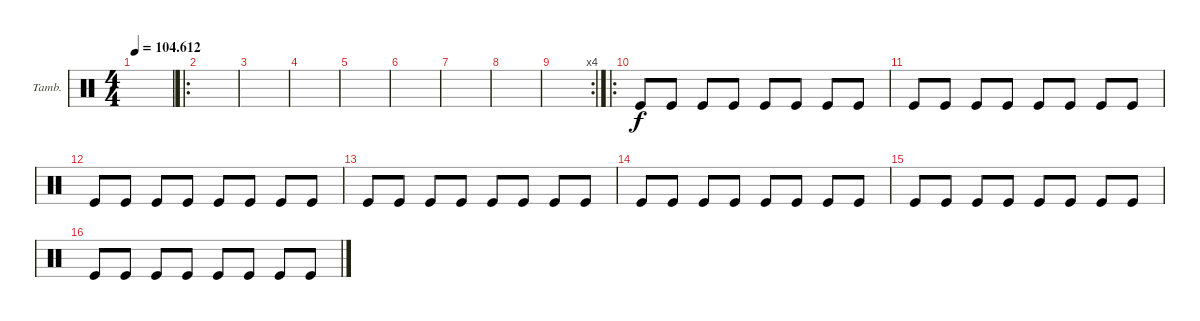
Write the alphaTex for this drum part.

\defaultSystemsLayout 4
\bracketExtendMode groupsimilarinstruments
\firstSystemTrackNameOrientation horizontal
\otherSystemsTrackNameOrientation horizontal
\track ("Tambourine" "Tamb.") {instrument percussion}
\staff {score}
\articulation defaults
\ts (4 4)
\tempo
104.612
\accidentals auto
\clef neutral
\ottava regular
\simile none
\scale
0.333333
\ks c
|
\ro
\scale
0.377049 |
\scale
0.311475 |
\scale
0.311475 |
\scale
0.333333 |
\scale
0.333333 |
\scale
0.333333 |
\scale
0.301587 |
\rc 4
\scale
0.333333 |
\ro
\scale
0.365079 "Kick (hit)".8 "Kick (hit)".8 "Kick (hit)".8 "Kick (hit)".8 "Kick (hit)".8 "Kick (hit)".8 "Kick (hit)".8 "Kick (hit)".8 |
\scale
0.333333 "Kick (hit)".8 "Kick (hit)".8 "Kick (hit)".8 "Kick (hit)".8 "Kick (hit)".8 "Kick (hit)".8 "Kick (hit)".8 "Kick (hit)".8 |
\scale
0.333333 "Kick (hit)".8 "Kick (hit)".8 "Kick (hit)".8 "Kick (hit)".8 "Kick (hit)".8 "Kick (hit)".8 "Kick (hit)".8 "Kick (hit)".8 |
\scale
0.333333 "Kick (hit)".8 "Kick (hit)".8 "Kick (hit)".8 "Kick (hit)".8 "Kick (hit)".8 "Kick (hit)".8 "Kick (hit)".8 "Kick (hit)".8 |
\scale
0.333333 "Kick (hit)".8 "Kick (hit)".8 "Kick (hit)".8 "Kick (hit)".8 "Kick (hit)".8 "Kick (hit)".8 "Kick (hit)".8 "Kick (hit)".8 |
\scale
0.333333 "Kick (hit)".8 "Kick (hit)".8 "Kick (hit)".8 "Kick (hit)".8 "Kick (hit)".8 "Kick (hit)".8 "Kick (hit)".8 "Kick (hit)".8 |
\scale
0.333333 "Kick (hit)".8 "Kick (hit)".8 "Kick (hit)".8 "Kick (hit)".8 "Kick (hit)".8 "Kick (hit)".8 "Kick (hit)".8 "Kick (hit)".8
